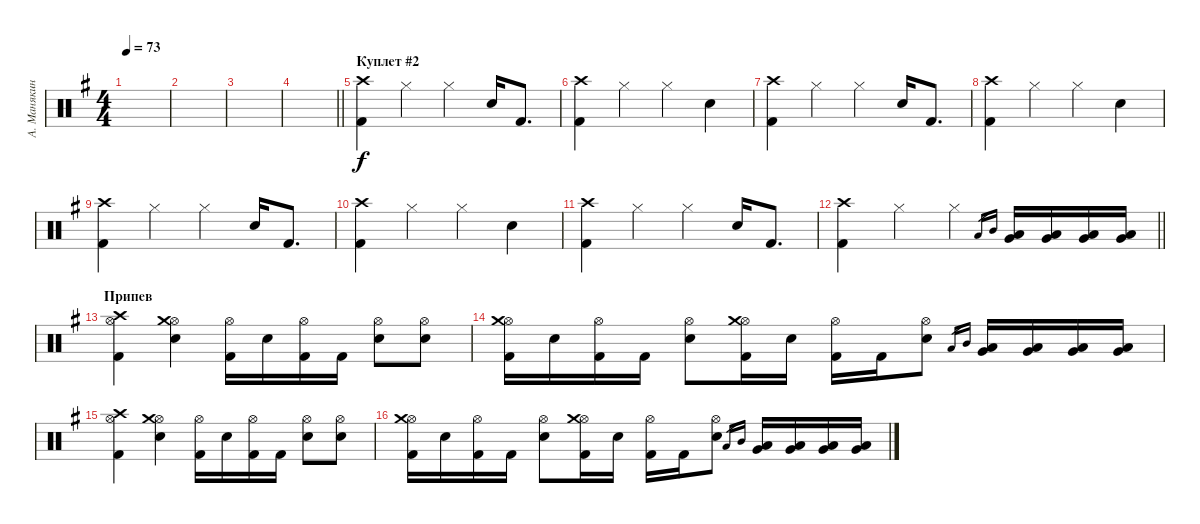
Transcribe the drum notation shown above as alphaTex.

\track ("А. Манякин" "А. Манякин") {instrument percussion}
\staff {score}
\articulation defaults
\ts (4 4)
\tempo 73
\clef neutral
\ks g
|
|
|
\barLineRight lightlight
|
\section ("" "Куплет #2")
("Kick (hit) 2" "Crash high (hit)").4 "Hi-Hat (closed)".4 "Hi-Hat (closed)".4 "Electric Snare (hit)".16 "Kick (hit) 2".8{d} |
("Kick (hit) 2" "Crash high (hit)").4 "Hi-Hat (closed)".4 "Hi-Hat (closed)".4 "Electric Snare (hit)".4 |
("Kick (hit) 2" "Crash high (hit)").4 "Hi-Hat (closed)".4 "Hi-Hat (closed)".4 "Electric Snare (hit)".16 "Kick (hit) 2".8{d} |
("Kick (hit) 2" "Crash high (hit)").4 "Hi-Hat (closed)".4 "Hi-Hat (closed)".4 "Electric Snare (hit)".4 |
("Kick (hit) 2" "Crash high (hit)").4 "Hi-Hat (closed)".4 "Hi-Hat (closed)".4 "Electric Snare (hit)".16 "Kick (hit) 2".8{d} |
("Kick (hit) 2" "Crash high (hit)").4 "Hi-Hat (closed)".4 "Hi-Hat (closed)".4 "Electric Snare (hit)".4 |
("Kick (hit) 2" "Crash high (hit)").4 "Hi-Hat (closed)".4 "Hi-Hat (closed)".4 "Electric Snare (hit)".16 "Kick (hit) 2".8{d} |
\barLineRight lightlight
("Kick (hit) 2" "Crash high (hit)").4 "Hi-Hat (closed)".4 "Hi-Hat (closed)".4 "Low Tom (hit)".16{gr} "Mid Tom (hit)".16{gr} ("Very Low Tom (hit)" "Low Tom (hit)").16 ("Very Low Tom (hit)" "Low Tom (hit)").16 ("Low Floor Tom (hit)" "Very Low Tom (hit)").16 ("Low Floor Tom (hit)" "Very Low Tom (hit)").16 |
\section ("" "Припев")
("Kick (hit) 2" "Hi-Hat (open)" "Crash high (hit)").4 ("Electric Snare (hit)" "Hi-Hat (open)" "Crash medium (hit)").4 ("Kick (hit) 2" "Hi-Hat (open)").16 "Electric Snare (hit)".16 ("Kick (hit) 2" "Hi-Hat (open)").16 "Kick (hit) 2".16 ("Electric Snare (hit)" "Hi-Hat (open)").8 ("Electric Snare (hit)" "Hi-Hat (open)").8 |
("Kick (hit) 2" "Hi-Hat (open)" "Crash medium (hit)").16 "Electric Snare (hit)".16 ("Kick (hit) 2" "Hi-Hat (open)").16 "Kick (hit) 2".16 ("Electric Snare (hit)" "Hi-Hat (open)").8 ("Kick (hit) 2" "Hi-Hat (open)" "Crash medium (hit)").16 "Electric Snare (hit)".16 ("Kick (hit) 2" "Hi-Hat (open)").16 "Kick (hit) 2".16 ("Electric Snare (hit)" "Hi-Hat (open)").8 "Low Tom (hit)".16{gr} "Mid Tom (hit)".16{gr} ("Very Low Tom (hit)" "Low Tom (hit)").16 ("Very Low Tom (hit)" "Low Tom (hit)").16 ("Low Floor Tom (hit)" "Very Low Tom (hit)").16 ("Low Floor Tom (hit)" "Very Low Tom (hit)").16 |
("Kick (hit) 2" "Hi-Hat (open)" "Crash high (hit)").4 ("Electric Snare (hit)" "Hi-Hat (open)" "Crash medium (hit)").4 ("Kick (hit) 2" "Hi-Hat (open)").16 "Electric Snare (hit)".16 ("Kick (hit) 2" "Hi-Hat (open)").16 "Kick (hit) 2".16 ("Electric Snare (hit)" "Hi-Hat (open)").8 ("Electric Snare (hit)" "Hi-Hat (open)").8 |
("Kick (hit) 2" "Hi-Hat (open)" "Crash medium (hit)").16 "Electric Snare (hit)".16 ("Kick (hit) 2" "Hi-Hat (open)").16 "Kick (hit) 2".16 ("Electric Snare (hit)" "Hi-Hat (open)").8 ("Kick (hit) 2" "Hi-Hat (open)" "Crash medium (hit)").16 "Electric Snare (hit)".16 ("Kick (hit) 2" "Hi-Hat (open)").16 "Kick (hit) 2".16 ("Electric Snare (hit)" "Hi-Hat (open)").8 "Low Tom (hit)".16{gr} "Mid Tom (hit)".16{gr} ("Very Low Tom (hit)" "Low Tom (hit)").16 ("Very Low Tom (hit)" "Low Tom (hit)").16 ("Low Floor Tom (hit)" "Very Low Tom (hit)").16 ("Low Floor Tom (hit)" "Very Low Tom (hit)").16
